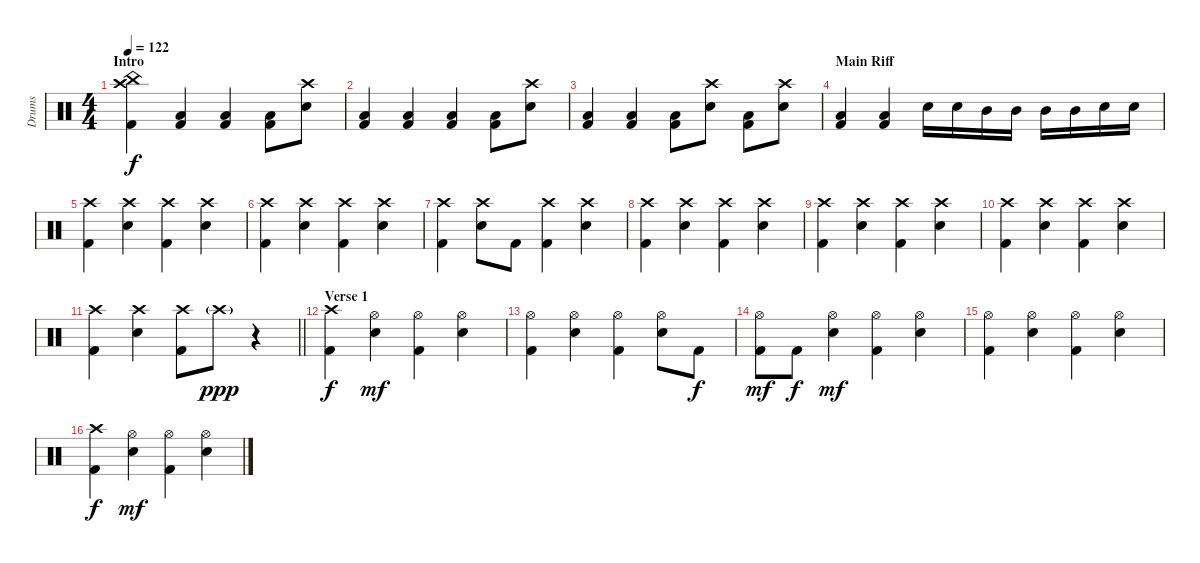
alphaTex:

\track ("Drums" "Drums") {instrument percussion}
\staff {score}
\articulation defaults
\ts (4 4)
\section ("" "Intro")
\tempo 122
\clef neutral
\ks c
("China (hit)" "Crash high (hit)" "Kick (hit) 2").4{dy f} ("Low Tom (hit)" "Kick (hit) 2").4 ("Low Tom (hit)" "Kick (hit) 2").4 ("Low Tom (hit)" "Kick (hit) 2").8 ("Crash high (hit)" "Electric Snare (hit)").8 |
("Low Tom (hit)" "Kick (hit) 2").4 ("Low Tom (hit)" "Kick (hit) 2").4 ("Low Tom (hit)" "Kick (hit) 2").4 ("Low Tom (hit)" "Kick (hit) 2").8 ("Crash high (hit)" "Electric Snare (hit)").8 |
("Low Tom (hit)" "Kick (hit) 2").4 ("Low Tom (hit)" "Kick (hit) 2").4 ("Low Tom (hit)" "Kick (hit) 2").8 ("Crash high (hit)" "Electric Snare (hit)").8 ("Low Tom (hit)" "Kick (hit) 2").8 ("Crash high (hit)" "Electric Snare (hit)").8 |
\section ("" "Main Riff")
("Low Tom (hit)" "Kick (hit) 2").4 ("Low Tom (hit)" "Kick (hit) 2").4 "Electric Snare (hit)".16 "Electric Snare (hit)".16 "Mid Tom (hit)".16 "Mid Tom (hit)".16 "Mid Tom (hit)".16 "Mid Tom (hit)".16 "Electric Snare (hit)".16 "Electric Snare (hit)".16 |
("Crash high (hit)" "Kick (hit) 2").4 ("Crash high (hit)" "Electric Snare (hit)").4 ("Crash high (hit)" "Kick (hit) 2").4 ("Crash high (hit)" "Electric Snare (hit)").4 |
("Crash high (hit)" "Kick (hit) 2").4 ("Crash high (hit)" "Electric Snare (hit)").4 ("Crash high (hit)" "Kick (hit) 2").4 ("Crash high (hit)" "Electric Snare (hit)").4 |
("Crash high (hit)" "Kick (hit) 2").4 ("Crash high (hit)" "Electric Snare (hit)").8 "Kick (hit) 2".8 ("Crash high (hit)" "Kick (hit) 2").4 ("Crash high (hit)" "Electric Snare (hit)").4 |
("Crash high (hit)" "Kick (hit) 2").4 ("Crash high (hit)" "Electric Snare (hit)").4 ("Crash high (hit)" "Kick (hit) 2").4 ("Crash high (hit)" "Electric Snare (hit)").4 |
("Crash high (hit)" "Kick (hit) 2").4 ("Crash high (hit)" "Electric Snare (hit)").4 ("Crash high (hit)" "Kick (hit) 2").4 ("Crash high (hit)" "Electric Snare (hit)").4 |
("Crash high (hit)" "Kick (hit) 2").4 ("Crash high (hit)" "Electric Snare (hit)").4 ("Crash high (hit)" "Kick (hit) 2").4 ("Crash high (hit)" "Electric Snare (hit)").4 |
\barLineRight lightlight
("Crash high (hit)" "Kick (hit) 2").4 ("Crash high (hit)" "Electric Snare (hit)").4 ("Crash high (hit)" "Kick (hit) 2").8 "Crash high (hit)"{g}.8{dy ppp} r.4 |
\section ("" "Verse 1")
("Crash high (hit)" "Kick (hit) 2").4{dy f} ("Hi-Hat (open)" "Electric Snare (hit)").4{dy mf} ("Hi-Hat (open)" "Kick (hit) 2").4 ("Hi-Hat (open)" "Electric Snare (hit)").4 |
("Hi-Hat (open)" "Kick (hit) 2").4 ("Hi-Hat (open)" "Electric Snare (hit)").4 ("Hi-Hat (open)" "Kick (hit) 2").4 ("Hi-Hat (open)" "Electric Snare (hit)").8 "Kick (hit) 2".8{dy f} |
("Hi-Hat (open)" "Kick (hit) 2").8{dy mf} "Kick (hit) 2".8{dy f} ("Hi-Hat (open)" "Electric Snare (hit)").4{dy mf} ("Hi-Hat (open)" "Kick (hit) 2").4 ("Hi-Hat (open)" "Electric Snare (hit)").4 |
("Hi-Hat (open)" "Kick (hit) 2").4 ("Hi-Hat (open)" "Electric Snare (hit)").4 ("Hi-Hat (open)" "Kick (hit) 2").4 ("Hi-Hat (open)" "Electric Snare (hit)").4 |
("Crash high (hit)" "Kick (hit) 2").4{dy f} ("Hi-Hat (open)" "Electric Snare (hit)").4{dy mf} ("Hi-Hat (open)" "Kick (hit) 2").4 ("Hi-Hat (open)" "Electric Snare (hit)").4
